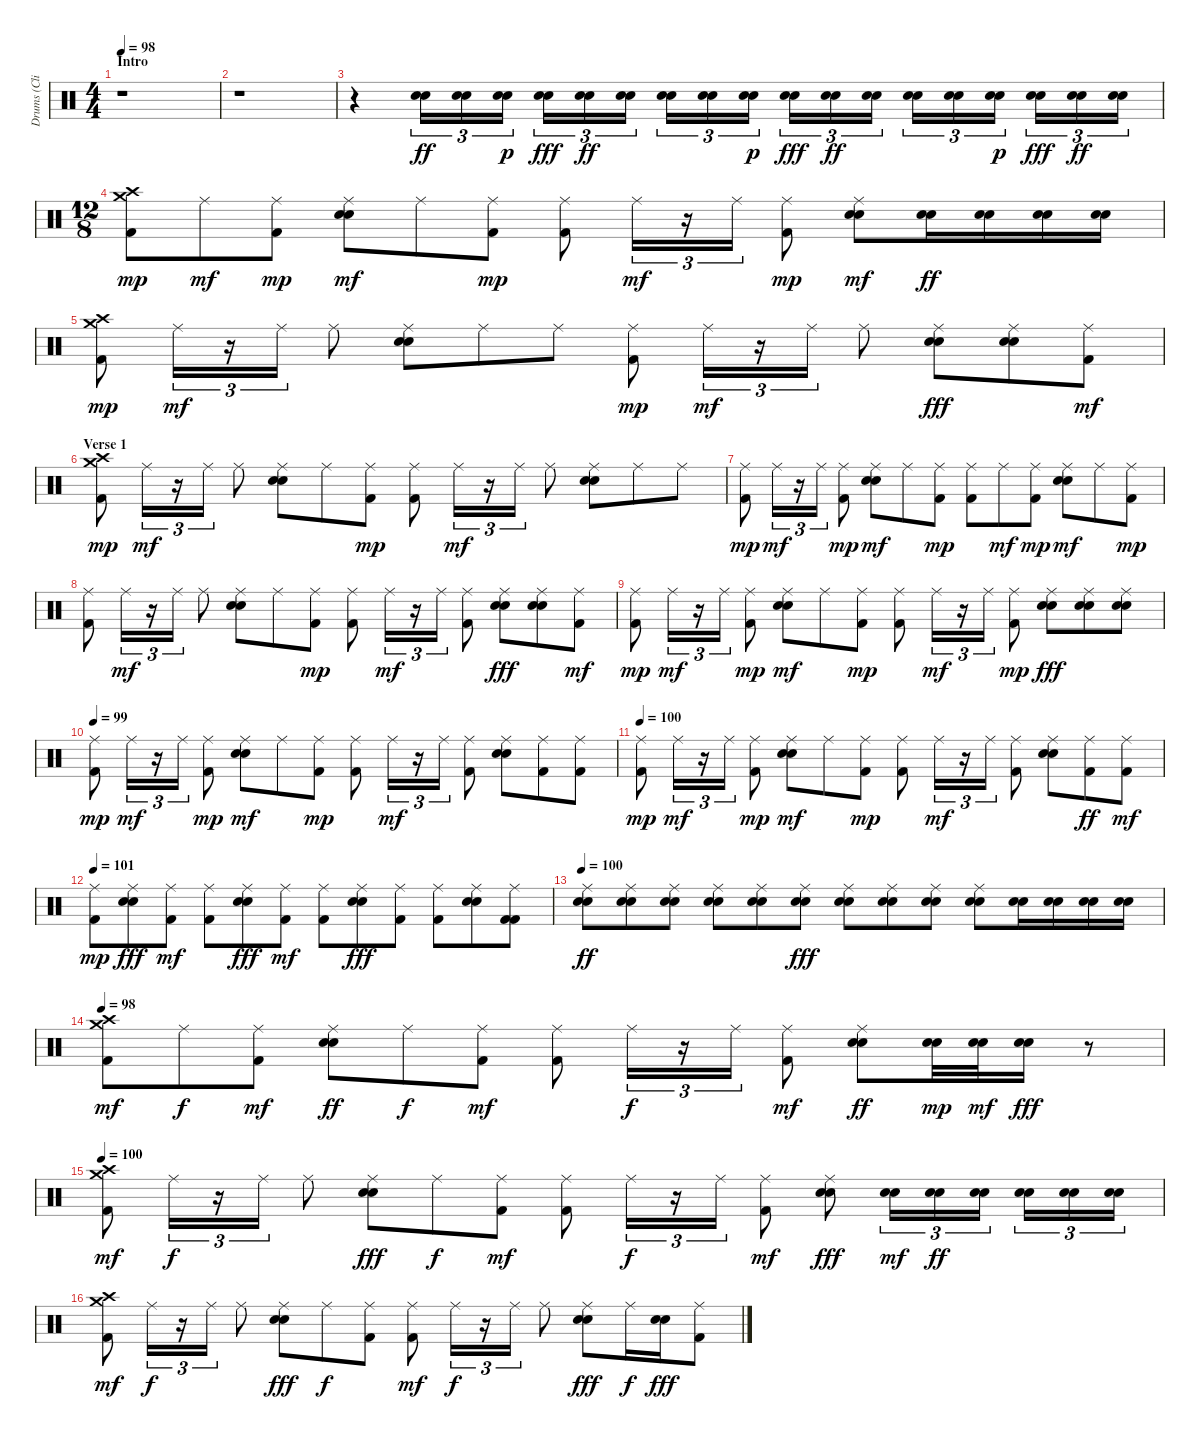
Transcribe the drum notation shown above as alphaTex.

\track ("Drums (Clifford)" "Drums (Cli") {instrument percussion}
\staff {score}
\articulation defaults
\ts (4 4)
\section ("" "Intro")
\tempo 98
\clef neutral
\ks c
r.1{dy ff} |
r.1 |
r.4 ("Snare (hit) 2" "Electric Snare (hit)").16{tu (3 2)} ("Snare (hit) 2" "Electric Snare (hit)").16{tu (3 2)} ("Snare (hit) 2" "Electric Snare (hit)").16{tu (3 2) dy p} ("Snare (hit) 2" "Electric Snare (hit)").16{tu (3 2) dy fff} ("Snare (hit) 2" "Electric Snare (hit)").16{tu (3 2) dy ff} ("Snare (hit) 2" "Electric Snare (hit)").16{tu (3 2)} ("Snare (hit) 2" "Electric Snare (hit)").16{tu (3 2)} ("Snare (hit) 2" "Electric Snare (hit)").16{tu (3 2)} ("Snare (hit) 2" "Electric Snare (hit)").16{tu (3 2) dy p} ("Snare (hit) 2" "Electric Snare (hit)").16{tu (3 2) dy fff} ("Snare (hit) 2" "Electric Snare (hit)").16{tu (3 2) dy ff} ("Snare (hit) 2" "Electric Snare (hit)").16{tu (3 2)} ("Snare (hit) 2" "Electric Snare (hit)").16{tu (3 2)} ("Snare (hit) 2" "Electric Snare (hit)").16{tu (3 2)} ("Snare (hit) 2" "Electric Snare (hit)").16{tu (3 2) dy p} ("Snare (hit) 2" "Electric Snare (hit)").16{tu (3 2) dy fff} ("Snare (hit) 2" "Electric Snare (hit)").16{tu (3 2) dy ff} ("Snare (hit) 2" "Electric Snare (hit)").16{tu (3 2)} |
\ts (12 8)
("Crash high (hit)" "Crash medium (hit)" "Kick (hit) 2").8{dy mp} "Ride (middle)".8{dy mf} ("Ride (middle)" "Kick (hit) 2").8{dy mp} ("Ride (middle)" "Snare (hit) 2" "Electric Snare (hit)").8{dy mf} "Ride (middle)".8 ("Ride (middle)" "Kick (hit) 2").8{dy mp} ("Ride (middle)" "Kick (hit) 2").8 "Ride (middle)".16{tu (3 2) dy mf} r.16{tu (3 2)} "Ride (middle)".16{tu (3 2)} ("Ride (middle)" "Kick (hit) 2").8{dy mp} ("Ride (middle)" "Snare (hit) 2" "Electric Snare (hit)").8{dy mf} ("Snare (hit) 2" "Electric Snare (hit)").16{dy ff} ("Snare (hit) 2" "Electric Snare (hit)").16 ("Snare (hit) 2" "Electric Snare (hit)").16 ("Snare (hit) 2" "Electric Snare (hit)").16 |
("Crash high (hit)" "Crash medium (hit)" "Kick (hit) 2").8{dy mp} "Ride (middle)".16{tu (3 2) dy mf} r.16{tu (3 2)} "Ride (middle)".16{tu (3 2)} "Ride (middle)".8 ("Ride (middle)" "Snare (hit) 2" "Electric Snare (hit)").8 "Ride (middle)".8 "Ride (middle)".8 ("Ride (middle)" "Kick (hit) 2").8{dy mp} "Ride (middle)".16{tu (3 2) dy mf} r.16{tu (3 2)} "Ride (middle)".16{tu (3 2)} "Ride (middle)".8 ("Ride (middle)" "Snare (hit) 2" "Electric Snare (hit)").8{dy fff} ("Ride (middle)" "Snare (hit) 2" "Electric Snare (hit)").8 ("Ride (middle)" "Kick (hit) 2").8{dy mf} |
\section ("" "Verse 1")
("Crash high (hit)" "Crash medium (hit)" "Kick (hit) 2").8{dy mp} "Ride (middle)".16{tu (3 2) dy mf} r.16{tu (3 2)} "Ride (middle)".16{tu (3 2)} "Ride (middle)".8 ("Ride (middle)" "Snare (hit) 2" "Electric Snare (hit)").8 "Ride (middle)".8 ("Ride (middle)" "Kick (hit) 2").8{dy mp} ("Ride (middle)" "Kick (hit) 2").8 "Ride (middle)".16{tu (3 2) dy mf} r.16{tu (3 2)} "Ride (middle)".16{tu (3 2)} "Ride (middle)".8 ("Ride (middle)" "Snare (hit) 2" "Electric Snare (hit)").8 "Ride (middle)".8 "Ride (middle)".8 |
("Ride (middle)" "Kick (hit) 2").8{dy mp} "Ride (middle)".16{tu (3 2) dy mf} r.16{tu (3 2)} "Ride (middle)".16{tu (3 2)} ("Ride (middle)" "Kick (hit) 2").8{dy mp} ("Ride (middle)" "Snare (hit) 2" "Electric Snare (hit)").8{dy mf} "Ride (middle)".8 ("Ride (middle)" "Kick (hit) 2").8{dy mp} ("Ride (middle)" "Kick (hit) 2").8 "Ride (middle)".8{dy mf} ("Ride (middle)" "Kick (hit) 2").8{dy mp} ("Ride (middle)" "Snare (hit) 2" "Electric Snare (hit)").8{dy mf} "Ride (middle)".8 ("Ride (middle)" "Kick (hit) 2").8{dy mp} |
("Ride (middle)" "Kick (hit) 2").8 "Ride (middle)".16{tu (3 2) dy mf} r.16{tu (3 2)} "Ride (middle)".16{tu (3 2)} "Ride (middle)".8 ("Ride (middle)" "Snare (hit) 2" "Electric Snare (hit)").8 "Ride (middle)".8 ("Ride (middle)" "Kick (hit) 2").8{dy mp} ("Ride (middle)" "Kick (hit) 2").8 "Ride (middle)".16{tu (3 2) dy mf} r.16{tu (3 2)} "Ride (middle)".16{tu (3 2)} ("Ride (middle)" "Kick (hit) 2").8 ("Ride (middle)" "Snare (hit) 2" "Electric Snare (hit)").8{dy fff} ("Ride (middle)" "Snare (hit) 2" "Electric Snare (hit)").8 ("Ride (middle)" "Kick (hit) 2").8{dy mf} |
("Ride (middle)" "Kick (hit) 2").8{dy mp} "Ride (middle)".16{tu (3 2) dy mf} r.16{tu (3 2)} "Ride (middle)".16{tu (3 2)} ("Ride (middle)" "Kick (hit) 2").8{dy mp} ("Ride (middle)" "Snare (hit) 2" "Electric Snare (hit)").8{dy mf} "Ride (middle)".8 ("Ride (middle)" "Kick (hit) 2").8{dy mp} ("Ride (middle)" "Kick (hit) 2").8 "Ride (middle)".16{tu (3 2) dy mf} r.16{tu (3 2)} "Ride (middle)".16{tu (3 2)} ("Ride (middle)" "Kick (hit) 2").8{dy mp} ("Ride (middle)" "Snare (hit) 2" "Electric Snare (hit)").8{dy fff} ("Ride (middle)" "Snare (hit) 2" "Electric Snare (hit)").8 ("Ride (middle)" "Snare (hit) 2" "Electric Snare (hit)").8 |
\tempo 99
("Ride (middle)" "Kick (hit) 2").8{dy mp} "Ride (middle)".16{tu (3 2) dy mf} r.16{tu (3 2)} "Ride (middle)".16{tu (3 2)} ("Ride (middle)" "Kick (hit) 2").8{dy mp} ("Ride (middle)" "Snare (hit) 2" "Electric Snare (hit)").8{dy mf} "Ride (middle)".8 ("Ride (middle)" "Kick (hit) 2").8{dy mp} ("Ride (middle)" "Kick (hit) 2").8 "Ride (middle)".16{tu (3 2) dy mf} r.16{tu (3 2)} "Ride (middle)".16{tu (3 2)} ("Ride (middle)" "Kick (hit) 2").8 ("Ride (middle)" "Snare (hit) 2" "Electric Snare (hit)").8 ("Ride (middle)" "Kick (hit) 2").8 ("Ride (middle)" "Kick (hit) 2").8 |
\tempo 100
("Ride (middle)" "Kick (hit) 2").8{dy mp} "Ride (middle)".16{tu (3 2) dy mf} r.16{tu (3 2)} "Ride (middle)".16{tu (3 2)} ("Ride (middle)" "Kick (hit) 2").8{dy mp} ("Ride (middle)" "Snare (hit) 2" "Electric Snare (hit)").8{dy mf} "Ride (middle)".8 ("Ride (middle)" "Kick (hit) 2").8{dy mp} ("Ride (middle)" "Kick (hit) 2").8 "Ride (middle)".16{tu (3 2) dy mf} r.16{tu (3 2)} "Ride (middle)".16{tu (3 2)} ("Ride (middle)" "Kick (hit) 2").8 ("Ride (middle)" "Snare (hit) 2" "Electric Snare (hit)").8 ("Ride (middle)" "Kick (hit) 2").8{dy ff} ("Ride (middle)" "Kick (hit) 2").8{dy mf} |
\tempo 101
("Ride (middle)" "Kick (hit) 2").8{dy mp} ("Ride (middle)" "Snare (hit) 2" "Electric Snare (hit)").8{dy fff} ("Ride (middle)" "Kick (hit) 2").8{dy mf} ("Ride (middle)" "Kick (hit) 2").8 ("Ride (middle)" "Snare (hit) 2" "Electric Snare (hit)").8{dy fff} ("Ride (middle)" "Kick (hit) 2").8{dy mf} ("Ride (middle)" "Kick (hit) 2").8 ("Ride (middle)" "Snare (hit) 2" "Electric Snare (hit)").8{dy fff} ("Ride (middle)" "Kick (hit) 2").8 ("Ride (middle)" "Kick (hit) 2").8 ("Ride (middle)" "Snare (hit) 2" "Electric Snare (hit)").8 ("Ride (middle)" "Kick (hit) 2" "Kick (hit) 2").8 |
\tempo 100
("Ride (middle)" "Snare (hit) 2" "Electric Snare (hit)").8{dy ff} ("Ride (middle)" "Snare (hit) 2" "Electric Snare (hit)").8 ("Ride (middle)" "Snare (hit) 2" "Electric Snare (hit)").8 ("Ride (middle)" "Snare (hit) 2" "Electric Snare (hit)").8 ("Ride (middle)" "Snare (hit) 2" "Electric Snare (hit)").8 ("Ride (middle)" "Snare (hit) 2" "Electric Snare (hit)").8{dy fff} ("Ride (middle)" "Snare (hit) 2" "Electric Snare (hit)").8 ("Ride (middle)" "Snare (hit) 2" "Electric Snare (hit)").8 ("Ride (middle)" "Snare (hit) 2" "Electric Snare (hit)").8 ("Ride (middle)" "Snare (hit) 2" "Electric Snare (hit)").8 ("Snare (hit) 2" "Electric Snare (hit)").16 ("Snare (hit) 2" "Electric Snare (hit)").16 ("Snare (hit) 2" "Electric Snare (hit)").16 ("Snare (hit) 2" "Electric Snare (hit)").16 |
\tempo 98
("Crash medium (hit)" "Crash high (hit)" "Kick (hit) 2").8{dy mf} "Ride (middle)".8{dy f} ("Ride (middle)" "Kick (hit) 2").8{dy mf} ("Ride (middle)" "Snare (hit) 2" "Electric Snare (hit)").8{dy ff} "Ride (middle)".8{dy f} ("Ride (middle)" "Kick (hit) 2").8{dy mf} ("Ride (middle)" "Kick (hit) 2").8 "Ride (middle)".16{tu (3 2) dy f} r.16{tu (3 2)} "Ride (middle)".16{tu (3 2)} ("Ride (middle)" "Kick (hit) 2").8{dy mf} ("Ride (middle)" "Snare (hit) 2" "Electric Snare (hit)").8{dy ff} ("Snare (hit) 2" "Electric Snare (hit)").32{dy mp} ("Snare (hit) 2" "Electric Snare (hit)").32{dy mf} ("Snare (hit) 2" "Electric Snare (hit)").16{dy fff} r.8 |
\tempo 100
("Crash medium (hit)" "Crash high (hit)" "Kick (hit) 2").8{dy mf} "Ride (middle)".16{tu (3 2) dy f} r.16{tu (3 2)} "Ride (middle)".16{tu (3 2)} "Ride (middle)".8 ("Ride (middle)" "Snare (hit) 2" "Electric Snare (hit)").8{dy fff} "Ride (middle)".8{dy f} ("Ride (middle)" "Kick (hit) 2").8{dy mf} ("Ride (middle)" "Kick (hit) 2").8 "Ride (middle)".16{tu (3 2) dy f} r.16{tu (3 2)} "Ride (middle)".16{tu (3 2)} ("Ride (middle)" "Kick (hit) 2").8{dy mf} ("Ride (middle)" "Snare (hit) 2" "Electric Snare (hit)").8{dy fff} ("Snare (hit) 2" "Electric Snare (hit)").16{tu (3 2) dy mf} ("Snare (hit) 2" "Electric Snare (hit)").16{tu (3 2) dy ff} ("Snare (hit) 2" "Electric Snare (hit)").16{tu (3 2)} ("Snare (hit) 2" "Electric Snare (hit)").16{tu (3 2)} ("Snare (hit) 2" "Electric Snare (hit)").16{tu (3 2)} ("Snare (hit) 2" "Electric Snare (hit)").16{tu (3 2)} |
("Crash medium (hit)" "Crash high (hit)" "Kick (hit) 2").8{dy mf} "Ride (middle)".16{tu (3 2) dy f} r.16{tu (3 2)} "Ride (middle)".16{tu (3 2)} "Ride (middle)".8 ("Ride (middle)" "Snare (hit) 2" "Electric Snare (hit)").8{dy fff} "Ride (middle)".8{dy f} ("Ride (middle)" "Kick (hit) 2").8 ("Ride (middle)" "Kick (hit) 2").8{dy mf} "Ride (middle)".16{tu (3 2) dy f} r.16{tu (3 2)} "Ride (middle)".16{tu (3 2)} "Ride (middle)".8 ("Ride (middle)" "Snare (hit) 2" "Electric Snare (hit)").8{dy fff} "Ride (middle)".16{dy f} ("Snare (hit) 2" "Electric Snare (hit)").16{dy fff} ("Ride (middle)" "Kick (hit) 2").8
